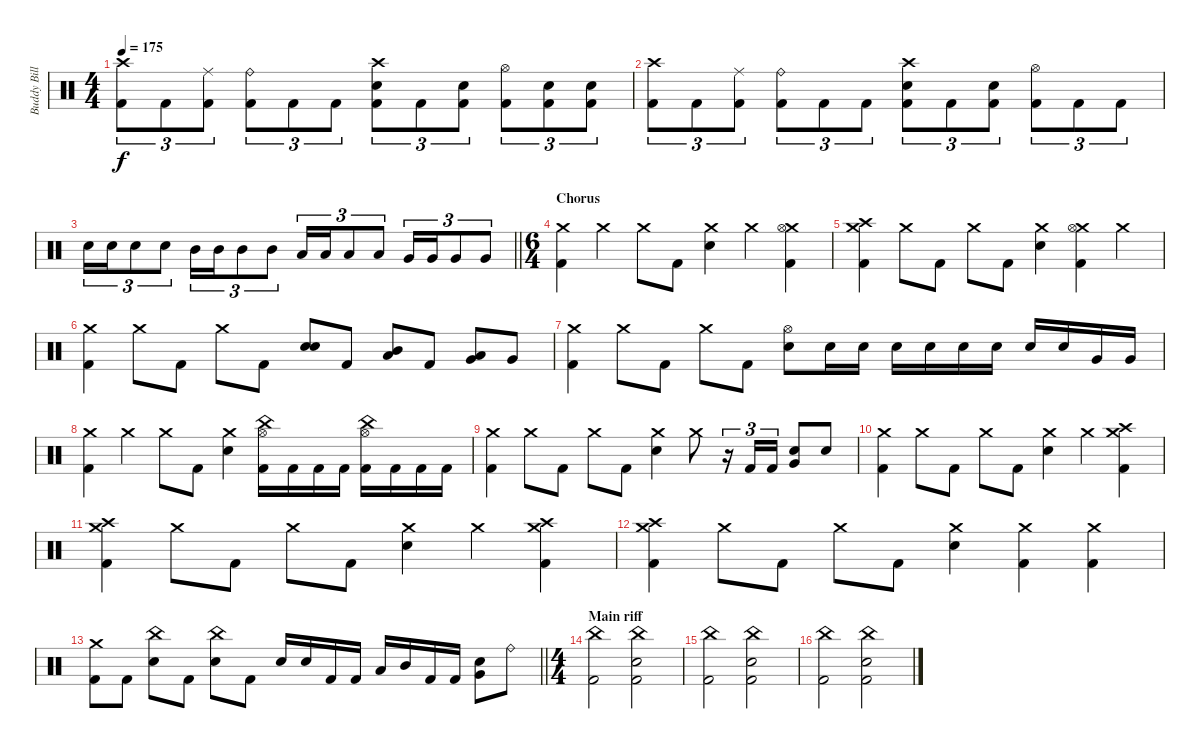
\track ("Buddy Bill" "Buddy Bill") {instrument percussion}
\staff {score}
\articulation defaults
\ts (4 4)
\tempo 175
\clef neutral
\ks c
("Crash high (hit)" "Kick (hit) 2").8{tu (3 2) dy f} "Kick (hit) 2".8{tu (3 2)} ("Ride (middle)" "Kick (hit) 2").8{tu (3 2)} ("Ride (bell)" "Kick (hit) 2").8{tu (3 2)} "Kick (hit) 2".8{tu (3 2)} "Kick (hit) 2".8{tu (3 2)} ("Crash high (hit)" "Snare (hit) 2" "Kick (hit) 2").8{tu (3 2)} "Kick (hit) 2".8{tu (3 2)} ("Snare (hit) 2" "Kick (hit) 2").8{tu (3 2)} ("Hi-Hat (open)" "Kick (hit) 2").8{tu (3 2)} ("Snare (hit) 2" "Kick (hit) 2").8{tu (3 2)} ("Snare (hit) 2" "Kick (hit) 2").8{tu (3 2)} |
("Crash high (hit)" "Kick (hit) 2").8{tu (3 2)} "Kick (hit) 2".8{tu (3 2)} ("Ride (middle)" "Kick (hit) 2").8{tu (3 2)} ("Ride (bell)" "Kick (hit) 2").8{tu (3 2)} "Kick (hit) 2".8{tu (3 2)} "Kick (hit) 2".8{tu (3 2)} ("Crash high (hit)" "Snare (hit) 2" "Kick (hit) 2").8{tu (3 2)} "Kick (hit) 2".8{tu (3 2)} ("Snare (hit) 2" "Kick (hit) 2").8{tu (3 2)} ("Hi-Hat (open)" "Kick (hit) 2").8{tu (3 2)} "Kick (hit) 2".8{tu (3 2)} "Kick (hit) 2".8{tu (3 2)} |
\barLineRight lightlight "Snare (hit) 2".16{tu (3 2)} "Snare (hit) 2".16{tu (3 2)} "Snare (hit) 2".8{tu (3 2)} "Snare (hit) 2".8{tu (3 2)} "Mid Tom (hit)".16{tu (3 2)} "Mid Tom (hit)".16{tu (3 2)} "Mid Tom (hit)".8{tu (3 2)} "Mid Tom (hit)".8{tu (3 2)} "Low Tom (hit)".16{tu (3 2)} "Low Tom (hit)".16{tu (3 2)} "Low Tom (hit)".8{tu (3 2)} "Low Tom (hit)".8{tu (3 2)} "Very Low Tom (hit)".16{tu (3 2)} "Very Low Tom (hit)".16{tu (3 2)} "Very Low Tom (hit)".8{tu (3 2)} "Very Low Tom (hit)".8{tu (3 2)}
|
\ts (6 4)
\section ("" "Chorus")
("Crash medium (hit)" "Kick (hit) 2").4 "Crash medium (hit)".4 "Crash medium (hit)".8 "Kick (hit) 2".8 ("Crash medium (hit)" "Snare (hit) 2").4 "Crash medium (hit)".4 ("Crash medium (hit)" "Hi-Hat (open)" "Kick (hit) 2").4 |
("Crash medium (hit)" "Crash high (hit)" "Kick (hit) 2").4 "Crash medium (hit)".8 "Kick (hit) 2".8 "Crash medium (hit)".8 "Kick (hit) 2".8 ("Crash medium (hit)" "Snare (hit) 2").4 ("Crash medium (hit)" "Hi-Hat (open)" "Kick (hit) 2").4 "Crash medium (hit)".4 |
("Crash medium (hit)" "Kick (hit) 2").4 "Crash medium (hit)".8 "Kick (hit) 2".8 "Crash medium (hit)".8 "Kick (hit) 2".8 ("Snare (hit) 2" "Snare (hit) 2").8 "Kick (hit) 2".8 ("Mid Tom (hit)" "Low Tom (hit)").8 "Kick (hit) 2".8 ("Low Tom (hit)" "Very Low Tom (hit)").8 "Very Low Tom (hit)".8 |
("Crash medium (hit)" "Kick (hit) 2").4 "Crash medium (hit)".8 "Kick (hit) 2".8 "Crash medium (hit)".8 "Kick (hit) 2".8 ("Hi-Hat (open)" "Snare (hit) 2").8 "Snare (hit) 2".16 "Snare (hit) 2".16 "Snare (hit) 2".16 "Snare (hit) 2".16 "Snare (hit) 2".16 "Snare (hit) 2".16 "Snare (hit) 2".16 "Snare (hit) 2".16 "Very Low Tom (hit)".16 "Very Low Tom (hit)".16 |
("Crash medium (hit)" "Kick (hit) 2").4 "Crash medium (hit)".4 "Crash medium (hit)".8 "Kick (hit) 2".8 ("Crash medium (hit)" "Snare (hit) 2").4 ("China (hit)" "Hi-Hat (open)" "Kick (hit) 2").16 "Kick (hit) 2".16 "Kick (hit) 2".16 "Kick (hit) 2".16 ("China (hit)" "Hi-Hat (open)" "Kick (hit) 2").16 "Kick (hit) 2".16 "Kick (hit) 2".16 "Kick (hit) 2".16 |
("Crash medium (hit)" "Kick (hit) 2").4 "Crash medium (hit)".8 "Kick (hit) 2".8 "Crash medium (hit)".8 "Kick (hit) 2".8 ("Crash medium (hit)" "Snare (hit) 2").4 "Crash medium (hit)".8 r.16{tu (3 2)} "Kick (hit) 2".16{tu (3 2)} "Kick (hit) 2".16{tu (3 2)} ("Snare (hit) 2" "Very Low Tom (hit)").8 "Snare (hit) 2".8 |
("Crash medium (hit)" "Kick (hit) 2").4 "Crash medium (hit)".8 "Kick (hit) 2".8 "Crash medium (hit)".8 "Kick (hit) 2".8 ("Crash medium (hit)" "Snare (hit) 2").4 "Crash medium (hit)".4 ("Crash medium (hit)" "Crash high (hit)" "Kick (hit) 2").4 |
("Crash medium (hit)" "Crash high (hit)" "Kick (hit) 2").4 "Crash medium (hit)".8 "Kick (hit) 2".8 "Crash medium (hit)".8 "Kick (hit) 2".8 ("Crash medium (hit)" "Snare (hit) 2").4 "Crash medium (hit)".4 ("Crash medium (hit)" "Crash high (hit)" "Kick (hit) 2").4 |
("Crash medium (hit)" "Crash high (hit)" "Kick (hit) 2").4 "Crash medium (hit)".8 "Kick (hit) 2".8 "Crash medium (hit)".8 "Kick (hit) 2".8 ("Crash medium (hit)" "Snare (hit) 2").4 ("Crash medium (hit)" "Kick (hit) 2").4 ("Crash medium (hit)" "Kick (hit) 2").4 |
\barLineRight lightlight
("Crash medium (hit)" "Kick (hit) 2").8 "Kick (hit) 2".8 ("China (hit)" "Snare (hit) 2").8 "Kick (hit) 2".8 ("China (hit)" "Snare (hit) 2").8 "Kick (hit) 2".8 "Snare (hit) 2".16 "Snare (hit) 2".16 "Kick (hit) 2".16 "Kick (hit) 2".16 "Low Tom (hit)".16 "Mid Tom (hit)".16 "Kick (hit) 2".16 "Kick (hit) 2".16 ("Snare (hit) 2" "Very Low Tom (hit)").8 "Ride (bell)".8 |
\ts (4 4)
\section ("" "Main riff")
("China (hit)" "Kick (hit) 2").2 ("China (hit)" "Snare (hit) 2" "Kick (hit) 2").2 |
("China (hit)" "Kick (hit) 2").2 ("China (hit)" "Snare (hit) 2" "Kick (hit) 2").2 |
("China (hit)" "Kick (hit) 2").2 ("China (hit)" "Snare (hit) 2" "Kick (hit) 2").2
